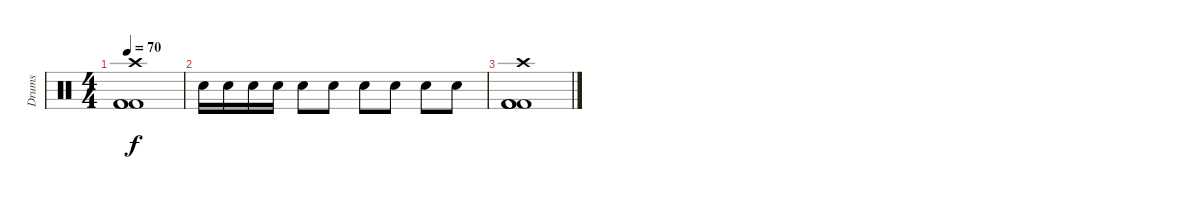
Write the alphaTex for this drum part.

\track ("Drums" "Drums") {instrument percussion}
\staff {score}
\articulation defaults
\ts (4 4)
\tempo 70
\clef neutral
\ks c
("Crash high (hit)" "Kick (hit) 2" "Kick (hit) 2" "Kick (hit) 2").1{dy f} |
"Snare (hit) 2".16 "Snare (hit) 2".16 "Snare (hit) 2".16 "Snare (hit) 2".16 "Snare (hit) 2".8 "Snare (hit) 2".8 "Snare (hit) 2".8 "Snare (hit) 2".8 "Snare (hit) 2".8 "Snare (hit) 2".8 |
("Crash high (hit)" "Kick (hit) 2" "Kick (hit) 2" "Kick (hit) 2" "Kick (hit) 2").1
